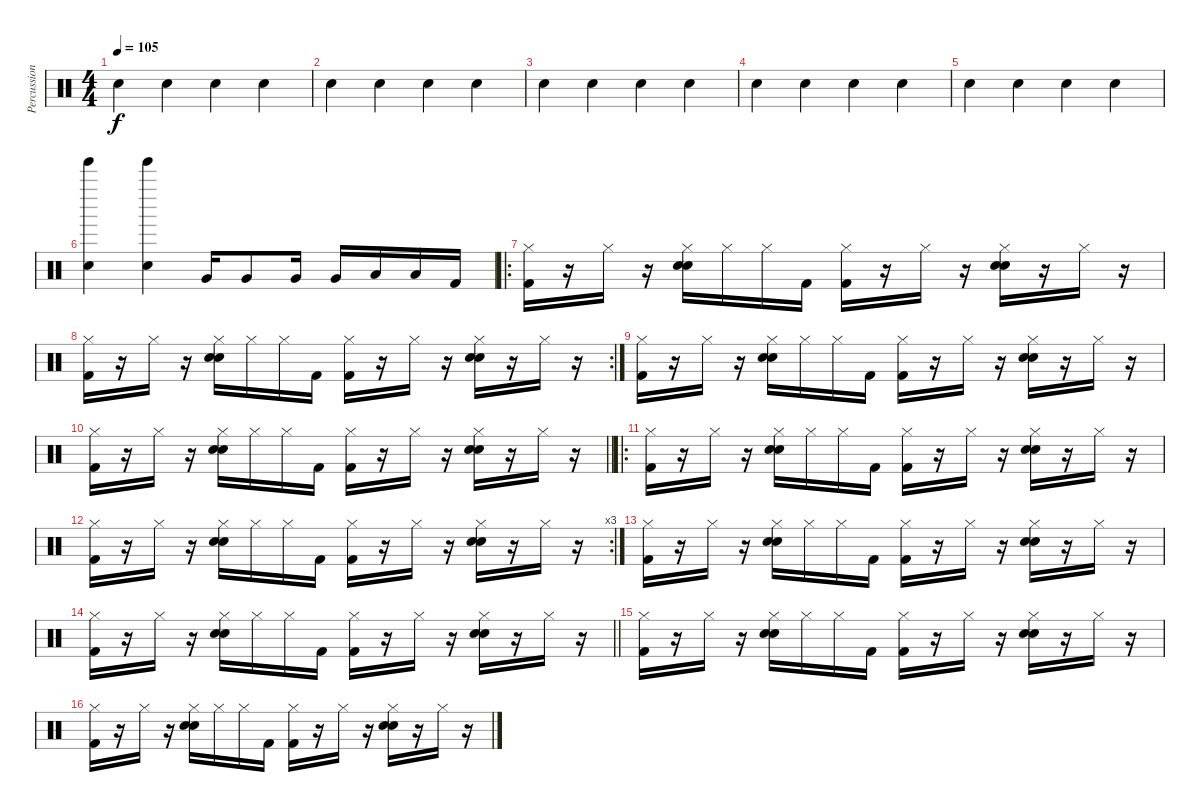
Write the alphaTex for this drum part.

\track ("Percussion" "Percussion") {instrument percussion}
\staff {score}
\articulation defaults
\ts (4 4)
\tempo 105
\clef neutral
\ks c "Snare (hit) 2".4{dy f} "Snare (hit) 2".4 "Snare (hit) 2".4 "Snare (hit) 2".4
|
"Snare (hit) 2".4 "Snare (hit) 2".4 "Snare (hit) 2".4 "Snare (hit) 2".4 |
"Snare (hit) 2".4 "Snare (hit) 2".4 "Snare (hit) 2".4 "Snare (hit) 2".4 |
"Snare (hit) 2".4 "Snare (hit) 2".4 "Snare (hit) 2".4 "Snare (hit) 2".4 |
"Snare (hit) 2".4 "Snare (hit) 2".4 "Snare (hit) 2".4 "Snare (hit) 2".4 |
("Snare (hit) 2" "Tinkle Bell (hit)").4 ("Snare (hit) 2" "Tinkle Bell (hit)").4 "Very Low Tom (hit)".16 "Very Low Tom (hit)".8 "Very Low Tom (hit)".16 "Very Low Tom (hit)".16 "Low Tom (hit)".16 "Low Tom (hit)".16 "Kick (hit) 2".16 |
\ro
("Hi-Hat (closed)" "Kick (hit) 2").16 r.16 "Hi-Hat (closed)".16 r.16 ("Hi-Hat (closed)" "Snare (hit) 2" "Hand Clap (hit)").16 "Hi-Hat (closed)".16 "Hi-Hat (closed)".16 "Kick (hit) 2".16 ("Hi-Hat (closed)" "Kick (hit) 2").16 r.16 "Hi-Hat (closed)".16 r.16 ("Hi-Hat (closed)" "Snare (hit) 2" "Hand Clap (hit)").16 r.16 "Hi-Hat (closed)".16 r.16 |
\rc 2
("Hi-Hat (closed)" "Kick (hit) 2").16 r.16 "Hi-Hat (closed)".16 r.16 ("Hi-Hat (closed)" "Snare (hit) 2" "Hand Clap (hit)").16 "Hi-Hat (closed)".16 "Hi-Hat (closed)".16 "Kick (hit) 2".16 ("Hi-Hat (closed)" "Kick (hit) 2").16 r.16 "Hi-Hat (closed)".16 r.16 ("Hi-Hat (closed)" "Snare (hit) 2" "Hand Clap (hit)").16 r.16 "Hi-Hat (closed)".16 r.16 |
("Hi-Hat (closed)" "Kick (hit) 2").16 r.16 "Hi-Hat (closed)".16 r.16 ("Hi-Hat (closed)" "Snare (hit) 2" "Hand Clap (hit)").16 "Hi-Hat (closed)".16 "Hi-Hat (closed)".16 "Kick (hit) 2".16 ("Hi-Hat (closed)" "Kick (hit) 2").16 r.16 "Hi-Hat (closed)".16 r.16 ("Hi-Hat (closed)" "Snare (hit) 2" "Hand Clap (hit)").16 r.16 "Hi-Hat (closed)".16 r.16 |
\barLineRight lightlight
("Hi-Hat (closed)" "Kick (hit) 2").16 r.16 "Hi-Hat (closed)".16 r.16 ("Hi-Hat (closed)" "Snare (hit) 2" "Hand Clap (hit)").16 "Hi-Hat (closed)".16 "Hi-Hat (closed)".16 "Kick (hit) 2".16 ("Hi-Hat (closed)" "Kick (hit) 2").16 r.16 "Hi-Hat (closed)".16 r.16 ("Hi-Hat (closed)" "Snare (hit) 2" "Hand Clap (hit)").16 r.16 "Hi-Hat (closed)".16 r.16 |
\ro
("Hi-Hat (closed)" "Kick (hit) 2").16 r.16 "Hi-Hat (closed)".16 r.16 ("Hi-Hat (closed)" "Snare (hit) 2" "Hand Clap (hit)").16 "Hi-Hat (closed)".16 "Hi-Hat (closed)".16 "Kick (hit) 2".16 ("Hi-Hat (closed)" "Kick (hit) 2").16 r.16 "Hi-Hat (closed)".16 r.16 ("Hi-Hat (closed)" "Snare (hit) 2" "Hand Clap (hit)").16 r.16 "Hi-Hat (closed)".16 r.16 |
\rc 3
("Hi-Hat (closed)" "Kick (hit) 2").16 r.16 "Hi-Hat (closed)".16 r.16 ("Hi-Hat (closed)" "Snare (hit) 2" "Hand Clap (hit)").16 "Hi-Hat (closed)".16 "Hi-Hat (closed)".16 "Kick (hit) 2".16 ("Hi-Hat (closed)" "Kick (hit) 2").16 r.16 "Hi-Hat (closed)".16 r.16 ("Hi-Hat (closed)" "Snare (hit) 2" "Hand Clap (hit)").16 r.16 "Hi-Hat (closed)".16 r.16 |
("Hi-Hat (closed)" "Kick (hit) 2").16 r.16 "Hi-Hat (closed)".16 r.16 ("Hi-Hat (closed)" "Snare (hit) 2" "Hand Clap (hit)").16 "Hi-Hat (closed)".16 "Hi-Hat (closed)".16 "Kick (hit) 2".16 ("Hi-Hat (closed)" "Kick (hit) 2").16 r.16 "Hi-Hat (closed)".16 r.16 ("Hi-Hat (closed)" "Snare (hit) 2" "Hand Clap (hit)").16 r.16 "Hi-Hat (closed)".16 r.16 |
\barLineRight lightlight
("Hi-Hat (closed)" "Kick (hit) 2").16 r.16 "Hi-Hat (closed)".16 r.16 ("Hi-Hat (closed)" "Snare (hit) 2" "Hand Clap (hit)").16 "Hi-Hat (closed)".16 "Hi-Hat (closed)".16 "Kick (hit) 2".16 ("Hi-Hat (closed)" "Kick (hit) 2").16 r.16 "Hi-Hat (closed)".16 r.16 ("Hi-Hat (closed)" "Snare (hit) 2" "Hand Clap (hit)").16 r.16 "Hi-Hat (closed)".16 r.16 |
("Hi-Hat (closed)" "Kick (hit) 2").16 r.16 "Hi-Hat (closed)".16 r.16 ("Hi-Hat (closed)" "Snare (hit) 2" "Hand Clap (hit)").16 "Hi-Hat (closed)".16 "Hi-Hat (closed)".16 "Kick (hit) 2".16 ("Hi-Hat (closed)" "Kick (hit) 2").16 r.16 "Hi-Hat (closed)".16 r.16 ("Hi-Hat (closed)" "Snare (hit) 2" "Hand Clap (hit)").16 r.16 "Hi-Hat (closed)".16 r.16 |
("Hi-Hat (closed)" "Kick (hit) 2").16 r.16 "Hi-Hat (closed)".16 r.16 ("Hi-Hat (closed)" "Snare (hit) 2" "Hand Clap (hit)").16 "Hi-Hat (closed)".16 "Hi-Hat (closed)".16 "Kick (hit) 2".16 ("Hi-Hat (closed)" "Kick (hit) 2").16 r.16 "Hi-Hat (closed)".16 r.16 ("Hi-Hat (closed)" "Snare (hit) 2" "Hand Clap (hit)").16 r.16 "Hi-Hat (closed)".16 r.16
